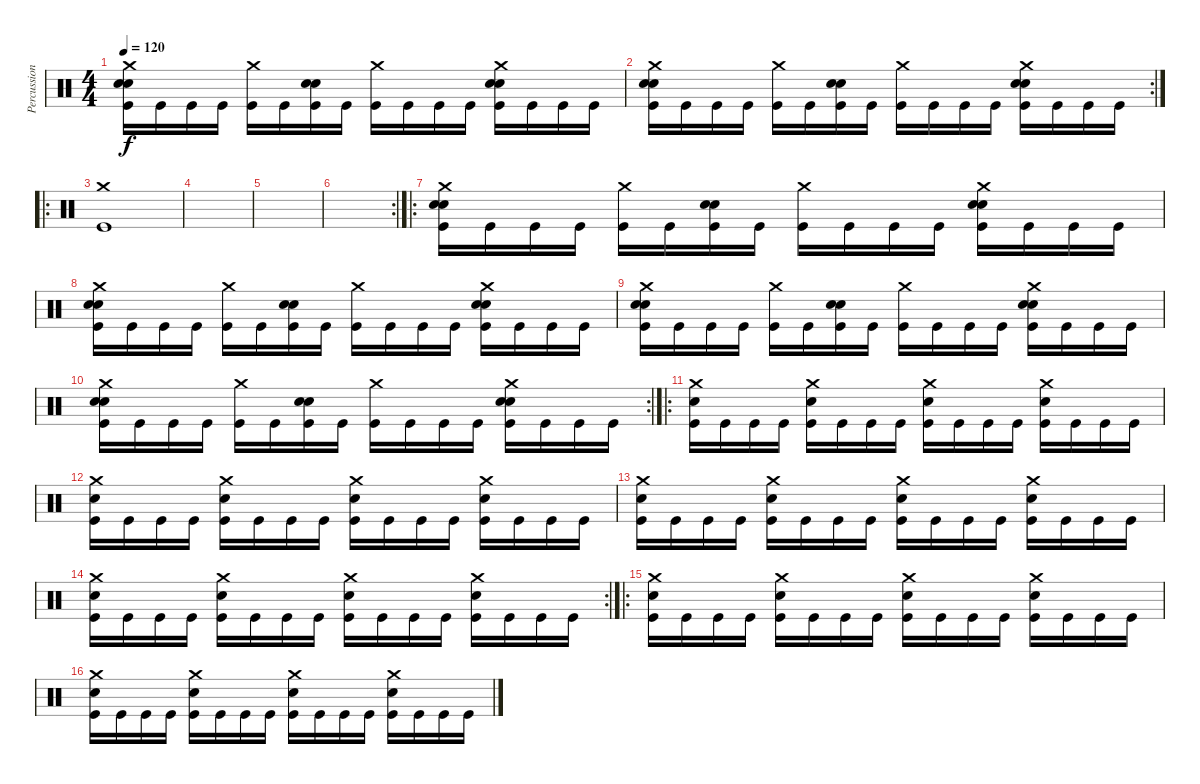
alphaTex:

\track ("Percussion" "Percussion") {instrument percussion}
\staff {score}
\articulation defaults
\ts (4 4)
\tempo 120
\clef neutral
\ks c
("Crash medium (hit)" "Snare (hit) 2" "Snare (hit) 2" "Kick (hit)").16{dy f} "Kick (hit)".16 "Kick (hit)".16 "Kick (hit)".16 ("Crash medium (hit)" "Kick (hit)").16 "Kick (hit)".16 ("Snare (hit) 2" "Snare (hit) 2" "Kick (hit)").16 "Kick (hit)".16 ("Crash medium (hit)" "Kick (hit)").16 "Kick (hit)".16 "Kick (hit)".16 "Kick (hit)".16 ("Crash medium (hit)" "Snare (hit) 2" "Snare (hit) 2" "Kick (hit)").16 "Kick (hit)".16 "Kick (hit)".16 "Kick (hit)".16 |
\rc 2
("Crash medium (hit)" "Snare (hit) 2" "Snare (hit) 2" "Kick (hit)").16 "Kick (hit)".16 "Kick (hit)".16 "Kick (hit)".16 ("Crash medium (hit)" "Kick (hit)").16 "Kick (hit)".16 ("Snare (hit) 2" "Snare (hit) 2" "Kick (hit)").16 "Kick (hit)".16 ("Crash medium (hit)" "Kick (hit)").16 "Kick (hit)".16 "Kick (hit)".16 "Kick (hit)".16 ("Crash medium (hit)" "Snare (hit) 2" "Snare (hit) 2" "Kick (hit)").16 "Kick (hit)".16 "Kick (hit)".16 "Kick (hit)".16 |
\ro
("Crash medium (hit)" "Kick (hit)").1 |
|
|
\rc 2
|
\ro
("Crash medium (hit)" "Snare (hit) 2" "Snare (hit) 2" "Kick (hit)").16 "Kick (hit)".16 "Kick (hit)".16 "Kick (hit)".16 ("Crash medium (hit)" "Kick (hit)").16 "Kick (hit)".16 ("Snare (hit) 2" "Snare (hit) 2" "Kick (hit)").16 "Kick (hit)".16 ("Crash medium (hit)" "Kick (hit)").16 "Kick (hit)".16 "Kick (hit)".16 "Kick (hit)".16 ("Crash medium (hit)" "Snare (hit) 2" "Snare (hit) 2" "Kick (hit)").16 "Kick (hit)".16 "Kick (hit)".16 "Kick (hit)".16 |
("Crash medium (hit)" "Snare (hit) 2" "Snare (hit) 2" "Kick (hit)").16 "Kick (hit)".16 "Kick (hit)".16 "Kick (hit)".16 ("Crash medium (hit)" "Kick (hit)").16 "Kick (hit)".16 ("Snare (hit) 2" "Snare (hit) 2" "Kick (hit)").16 "Kick (hit)".16 ("Crash medium (hit)" "Kick (hit)").16 "Kick (hit)".16 "Kick (hit)".16 "Kick (hit)".16 ("Crash medium (hit)" "Snare (hit) 2" "Snare (hit) 2" "Kick (hit)").16 "Kick (hit)".16 "Kick (hit)".16 "Kick (hit)".16 |
("Crash medium (hit)" "Snare (hit) 2" "Snare (hit) 2" "Kick (hit)").16 "Kick (hit)".16 "Kick (hit)".16 "Kick (hit)".16 ("Crash medium (hit)" "Kick (hit)").16 "Kick (hit)".16 ("Snare (hit) 2" "Snare (hit) 2" "Kick (hit)").16 "Kick (hit)".16 ("Crash medium (hit)" "Kick (hit)").16 "Kick (hit)".16 "Kick (hit)".16 "Kick (hit)".16 ("Crash medium (hit)" "Snare (hit) 2" "Snare (hit) 2" "Kick (hit)").16 "Kick (hit)".16 "Kick (hit)".16 "Kick (hit)".16 |
\rc 2
("Crash medium (hit)" "Snare (hit) 2" "Snare (hit) 2" "Kick (hit)").16 "Kick (hit)".16 "Kick (hit)".16 "Kick (hit)".16 ("Crash medium (hit)" "Kick (hit)").16 "Kick (hit)".16 ("Snare (hit) 2" "Snare (hit) 2" "Kick (hit)").16 "Kick (hit)".16 ("Crash medium (hit)" "Kick (hit)").16 "Kick (hit)".16 "Kick (hit)".16 "Kick (hit)".16 ("Crash medium (hit)" "Snare (hit) 2" "Snare (hit) 2" "Kick (hit)").16 "Kick (hit)".16 "Kick (hit)".16 "Kick (hit)".16 |
\ro
("Crash medium (hit)" "Snare (hit) 2" "Kick (hit)").16 "Kick (hit)".16 "Kick (hit)".16 "Kick (hit)".16 ("Crash medium (hit)" "Snare (hit) 2" "Kick (hit)").16 "Kick (hit)".16 "Kick (hit)".16 "Kick (hit)".16 ("Crash medium (hit)" "Snare (hit) 2" "Kick (hit)").16 "Kick (hit)".16 "Kick (hit)".16 "Kick (hit)".16 ("Crash medium (hit)" "Snare (hit) 2" "Kick (hit)").16 "Kick (hit)".16 "Kick (hit)".16 "Kick (hit)".16 |
("Crash medium (hit)" "Snare (hit) 2" "Kick (hit)").16 "Kick (hit)".16 "Kick (hit)".16 "Kick (hit)".16 ("Crash medium (hit)" "Snare (hit) 2" "Kick (hit)").16 "Kick (hit)".16 "Kick (hit)".16 "Kick (hit)".16 ("Crash medium (hit)" "Snare (hit) 2" "Kick (hit)").16 "Kick (hit)".16 "Kick (hit)".16 "Kick (hit)".16 ("Crash medium (hit)" "Snare (hit) 2" "Kick (hit)").16 "Kick (hit)".16 "Kick (hit)".16 "Kick (hit)".16 |
("Crash medium (hit)" "Snare (hit) 2" "Kick (hit)").16 "Kick (hit)".16 "Kick (hit)".16 "Kick (hit)".16 ("Crash medium (hit)" "Snare (hit) 2" "Kick (hit)").16 "Kick (hit)".16 "Kick (hit)".16 "Kick (hit)".16 ("Crash medium (hit)" "Snare (hit) 2" "Kick (hit)").16 "Kick (hit)".16 "Kick (hit)".16 "Kick (hit)".16 ("Crash medium (hit)" "Snare (hit) 2" "Kick (hit)").16 "Kick (hit)".16 "Kick (hit)".16 "Kick (hit)".16 |
\rc 2
("Crash medium (hit)" "Snare (hit) 2" "Kick (hit)").16 "Kick (hit)".16 "Kick (hit)".16 "Kick (hit)".16 ("Crash medium (hit)" "Snare (hit) 2" "Kick (hit)").16 "Kick (hit)".16 "Kick (hit)".16 "Kick (hit)".16 ("Crash medium (hit)" "Snare (hit) 2" "Kick (hit)").16 "Kick (hit)".16 "Kick (hit)".16 "Kick (hit)".16 ("Crash medium (hit)" "Snare (hit) 2" "Kick (hit)").16 "Kick (hit)".16 "Kick (hit)".16 "Kick (hit)".16 |
\ro
("Crash medium (hit)" "Snare (hit) 2" "Kick (hit)").16 "Kick (hit)".16 "Kick (hit)".16 "Kick (hit)".16 ("Crash medium (hit)" "Snare (hit) 2" "Kick (hit)").16 "Kick (hit)".16 "Kick (hit)".16 "Kick (hit)".16 ("Crash medium (hit)" "Snare (hit) 2" "Kick (hit)").16 "Kick (hit)".16 "Kick (hit)".16 "Kick (hit)".16 ("Crash medium (hit)" "Snare (hit) 2" "Kick (hit)").16 "Kick (hit)".16 "Kick (hit)".16 "Kick (hit)".16 |
("Crash medium (hit)" "Snare (hit) 2" "Kick (hit)").16 "Kick (hit)".16 "Kick (hit)".16 "Kick (hit)".16 ("Crash medium (hit)" "Snare (hit) 2" "Kick (hit)").16 "Kick (hit)".16 "Kick (hit)".16 "Kick (hit)".16 ("Crash medium (hit)" "Snare (hit) 2" "Kick (hit)").16 "Kick (hit)".16 "Kick (hit)".16 "Kick (hit)".16 ("Crash medium (hit)" "Snare (hit) 2" "Kick (hit)").16 "Kick (hit)".16 "Kick (hit)".16 "Kick (hit)".16
